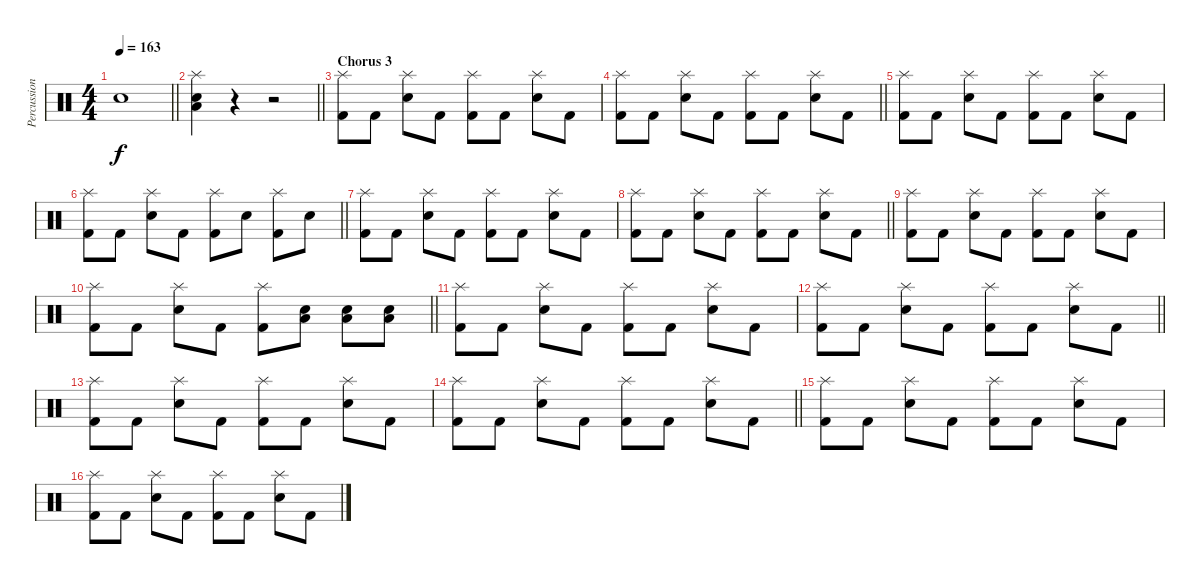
\track ("Percussion" "Percussion") {solo instrument percussion}
\staff {score}
\articulation defaults
\ts (4 4)
\tempo 163
\clef neutral
\barLineRight lightlight
\ks c "Snare (hit)"{t}.1{dy f}
|
\barLineRight lightlight
("Splash (hit)" "Low Floor Tom (hit)" "Snare (hit) 2").4 r.4 r.2 |
\section ("" "Chorus 3")
("Splash (hit)" "Kick (hit) 2").8 "Kick (hit) 2".8 ("Splash (hit)" "Snare (hit) 2").8 "Kick (hit) 2".8 ("Splash (hit)" "Kick (hit) 2").8 "Kick (hit) 2".8 ("Splash (hit)" "Snare (hit) 2").8 "Kick (hit) 2".8 |
\barLineRight lightlight
("Splash (hit)" "Kick (hit) 2").8 "Kick (hit) 2".8 ("Splash (hit)" "Snare (hit) 2").8 "Kick (hit) 2".8 ("Splash (hit)" "Kick (hit) 2").8 "Kick (hit) 2".8 ("Splash (hit)" "Snare (hit) 2").8 "Kick (hit) 2".8 |
("Splash (hit)" "Kick (hit) 2").8 "Kick (hit) 2".8 ("Splash (hit)" "Snare (hit) 2").8 "Kick (hit) 2".8 ("Splash (hit)" "Kick (hit) 2").8 "Kick (hit) 2".8 ("Splash (hit)" "Snare (hit) 2").8 "Kick (hit) 2".8 |
\barLineRight lightlight
("Splash (hit)" "Kick (hit) 2").8 "Kick (hit) 2".8 ("Splash (hit)" "Snare (hit) 2").8 "Kick (hit) 2".8 ("Splash (hit)" "Kick (hit) 2").8 "Snare (hit) 2".8 ("Splash (hit)" "Kick (hit) 2").8 "Snare (hit) 2".8 |
("Splash (hit)" "Kick (hit) 2").8 "Kick (hit) 2".8 ("Splash (hit)" "Snare (hit) 2").8 "Kick (hit) 2".8 ("Splash (hit)" "Kick (hit) 2").8 "Kick (hit) 2".8 ("Splash (hit)" "Snare (hit) 2").8 "Kick (hit) 2".8 |
\barLineRight lightlight
("Splash (hit)" "Kick (hit) 2").8 "Kick (hit) 2".8 ("Splash (hit)" "Snare (hit) 2").8 "Kick (hit) 2".8 ("Splash (hit)" "Kick (hit) 2").8 "Kick (hit) 2".8 ("Splash (hit)" "Snare (hit) 2").8 "Kick (hit) 2".8 |
("Splash (hit)" "Kick (hit) 2").8 "Kick (hit) 2".8 ("Splash (hit)" "Snare (hit) 2").8 "Kick (hit) 2".8 ("Splash (hit)" "Kick (hit) 2").8 "Kick (hit) 2".8 ("Splash (hit)" "Snare (hit) 2").8 "Kick (hit) 2".8 |
\barLineRight lightlight
("Splash (hit)" "Kick (hit) 2").8 "Kick (hit) 2".8 ("Splash (hit)" "Snare (hit) 2").8 "Kick (hit) 2".8 ("Splash (hit)" "Kick (hit) 2").8 ("Snare (hit) 2" "Low Floor Tom (hit)").8 ("Snare (hit) 2" "Low Floor Tom (hit)").8 ("Snare (hit) 2" "Low Floor Tom (hit)").8 |
("Splash (hit)" "Kick (hit) 2").8 "Kick (hit) 2".8 ("Splash (hit)" "Snare (hit) 2").8 "Kick (hit) 2".8 ("Splash (hit)" "Kick (hit) 2").8 "Kick (hit) 2".8 ("Splash (hit)" "Snare (hit) 2").8 "Kick (hit) 2".8 |
\barLineRight lightlight
("Splash (hit)" "Kick (hit) 2").8 "Kick (hit) 2".8 ("Splash (hit)" "Snare (hit) 2").8 "Kick (hit) 2".8 ("Splash (hit)" "Kick (hit) 2").8 "Kick (hit) 2".8 ("Splash (hit)" "Snare (hit) 2").8 "Kick (hit) 2".8 |
("Splash (hit)" "Kick (hit) 2").8 "Kick (hit) 2".8 ("Splash (hit)" "Snare (hit) 2").8 "Kick (hit) 2".8 ("Splash (hit)" "Kick (hit) 2").8 "Kick (hit) 2".8 ("Splash (hit)" "Snare (hit) 2").8 "Kick (hit) 2".8 |
\barLineRight lightlight
("Splash (hit)" "Kick (hit) 2").8 "Kick (hit) 2".8 ("Splash (hit)" "Snare (hit) 2").8 "Kick (hit) 2".8 ("Splash (hit)" "Kick (hit) 2").8 "Kick (hit) 2".8 ("Splash (hit)" "Snare (hit) 2").8 "Kick (hit) 2".8 |
("Splash (hit)" "Kick (hit) 2").8 "Kick (hit) 2".8 ("Splash (hit)" "Snare (hit) 2").8 "Kick (hit) 2".8 ("Splash (hit)" "Kick (hit) 2").8 "Kick (hit) 2".8 ("Splash (hit)" "Snare (hit) 2").8 "Kick (hit) 2".8 |
("Splash (hit)" "Kick (hit) 2").8 "Kick (hit) 2".8 ("Splash (hit)" "Snare (hit) 2").8 "Kick (hit) 2".8 ("Splash (hit)" "Kick (hit) 2").8 "Kick (hit) 2".8 ("Splash (hit)" "Snare (hit) 2").8 "Kick (hit) 2".8
